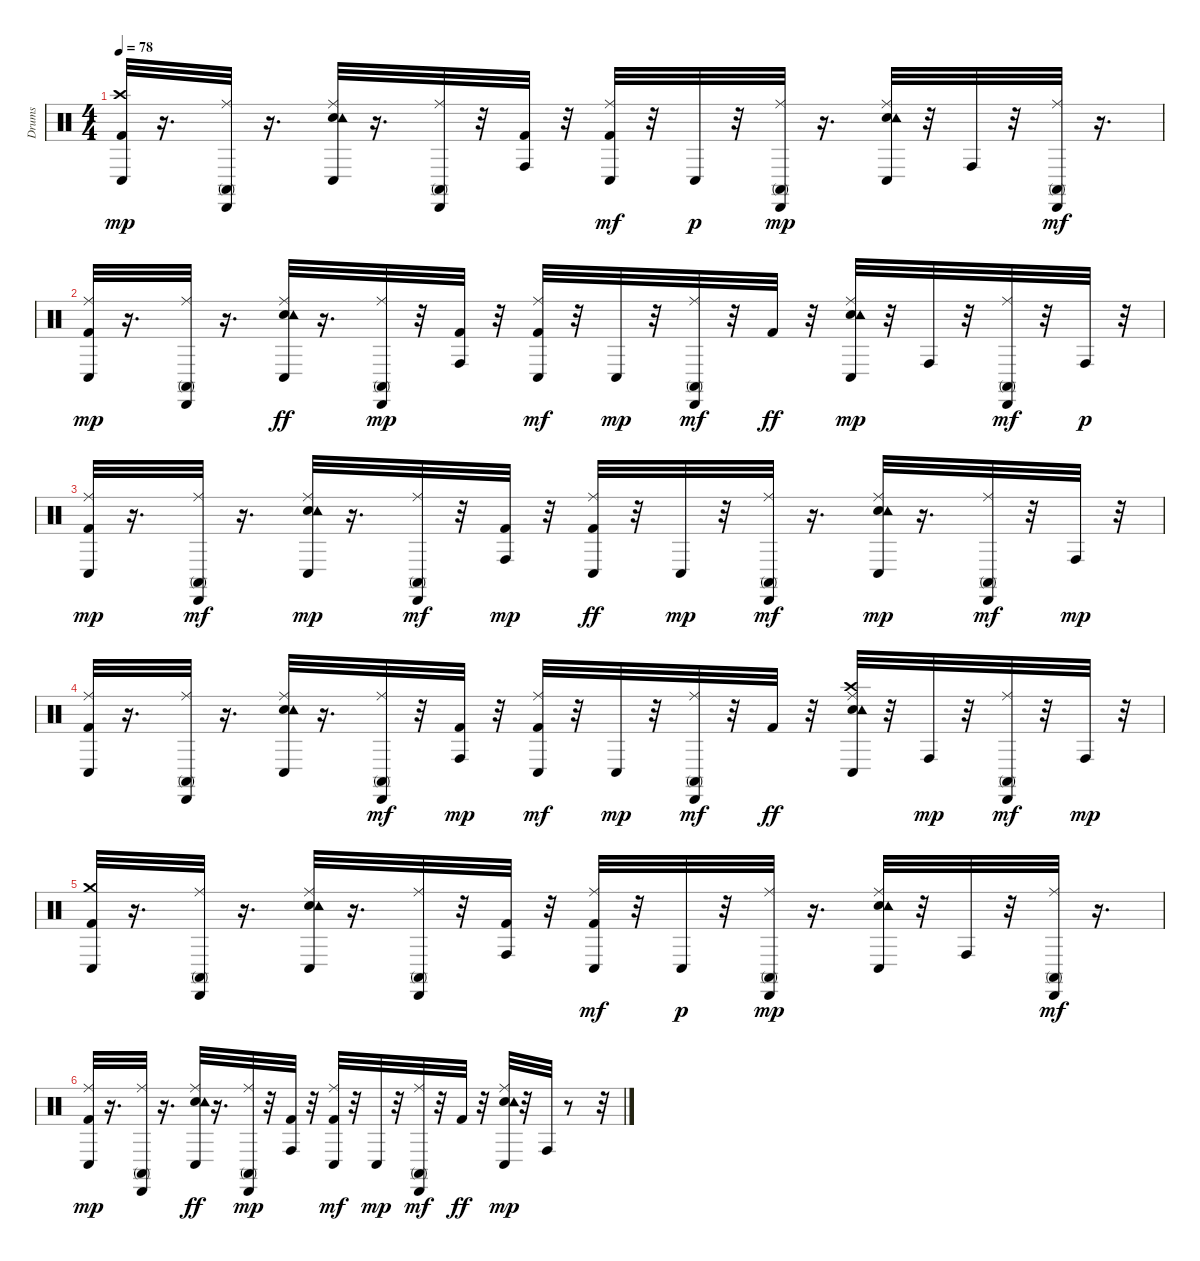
\track ("Drums   " "Drums   ") {instrument percussion}
\staff {score}
\articulation defaults
\ts (4 4)
\tempo 78
\clef neutral
\ks c
("Kick (hit) 2" "Crash high (hit)" "Conga low (hit)").32{dy mp} r.16{d} ("Ride (middle)" "Conga high (mute)" "Cabasa (hit)").32 r.16{d} ("Snare (hit) 2" "Ride (middle)" "Tambourine (hit)" "Conga low (hit)").32 r.16{d} ("Ride (middle)" "Conga high (mute)" "Cabasa (hit)").32 r.32 ("Kick (hit) 2" "Conga high (hit)").32 r.32 ("Conga low (hit)" "Kick (hit) 2" "Ride (middle)").32{dy mf} r.32 "Conga low (hit)".32{dy p} r.32 ("Ride (middle)" "Conga high (mute)" "Cabasa (hit)").32{dy mp} r.16{d} ("Snare (hit) 2" "Tambourine (hit)" "Ride (middle)" "Conga low (hit)").32{volume 14} r.32 "Conga high (hit)".32 r.32 ("Conga high (mute)" "Ride (middle)" "Cabasa (hit)").32{dy mf} r.16{d} |
("Kick (hit) 2" "Ride (middle)" "Conga low (hit)").32{dy mp volume 14} r.16{d} ("Ride (middle)" "Conga high (mute)" "Cabasa (hit)").32 r.16{d} ("Ride (middle)" "Conga low (hit)" "Snare (hit) 2" "Tambourine (hit)").32{dy ff volume 13} r.16{d} ("Conga high (mute)" "Ride (middle)" "Cabasa (hit)").32{dy mp volume 13} r.32 ("Kick (hit) 2" "Conga high (hit)").32{volume 12} r.32 ("Kick (hit) 2" "Conga low (hit)" "Ride (middle)").32{dy mf} r.32 "Conga low (hit)".32{dy mp} r.32 ("Conga high (mute)" "Ride (middle)" "Cabasa (hit)").32{dy mf} r.32 "Kick (hit) 2".32{dy ff volume 11} r.32 ("Snare (hit) 2" "Tambourine (hit)" "Ride (middle)" "Conga low (hit)").32{dy mp} r.32 "Conga high (hit)".32 r.32 ("Cabasa (hit)" "Ride (middle)" "Conga high (mute)").32{dy mf volume 11} r.32 "Conga high (hit)".32{dy p} r.32 |
("Ride (middle)" "Kick (hit) 2" "Conga low (hit)").32{dy mp} r.16{d} ("Cabasa (hit)" "Ride (middle)" "Conga high (mute)").32{dy mf volume 10} r.16{d} ("Snare (hit) 2" "Tambourine (hit)" "Ride (middle)" "Conga low (hit)").32{dy mp volume 10} r.16{d} ("Cabasa (hit)" "Ride (middle)" "Conga high (mute)").32{dy mf} r.32 ("Kick (hit) 2" "Conga high (hit)").32{dy mp volume 9} r.32 ("Conga low (hit)" "Ride (middle)" "Kick (hit) 2").32{dy ff} r.32 "Conga low (hit)".32{dy mp volume 9} r.32 ("Ride (middle)" "Cabasa (hit)" "Conga high (mute)").32{dy mf} r.16{d} ("Snare (hit) 2" "Tambourine (hit)" "Ride (middle)" "Conga low (hit)").32{dy mp volume 8} r.16{d} ("Conga high (mute)" "Ride (middle)" "Cabasa (hit)").32{dy mf volume 8} r.32 "Conga high (hit)".32{dy mp} r.32 |
("Ride (middle)" "Kick (hit) 2" "Conga low (hit)").32{volume 7} r.16{d} ("Ride (middle)" "Conga high (mute)" "Cabasa (hit)").32 r.16{d} ("Snare (hit) 2" "Tambourine (hit)" "Ride (middle)" "Conga low (hit)").32{volume 7} r.16{d} ("Ride (middle)" "Conga high (mute)" "Cabasa (hit)").32{dy mf} r.32 ("Kick (hit) 2" "Conga high (hit)").32{dy mp} r.32 ("Conga low (hit)" "Kick (hit) 2" "Ride (middle)").32{dy mf} r.32 "Conga low (hit)".32{dy mp volume 6} r.32 ("Cabasa (hit)" "Conga high (mute)" "Ride (middle)").32{dy mf} r.32 "Kick (hit) 2".32{dy ff} r.32 ("Crash high (hit)" "Ride (middle)" "Conga low (hit)" "Snare (hit) 2" "Tambourine (hit)").32 r.32 "Conga high (hit)".32{dy mp volume 6} r.32 ("Conga high (mute)" "Cabasa (hit)" "Ride (middle)").32{dy mf} r.32 "Conga high (hit)".32{dy mp} r.32 |
("Kick (hit) 2" "Crash medium (hit)" "Conga low (hit)").32 r.16{d} ("Ride (middle)" "Conga high (mute)" "Cabasa (hit)").32{volume 5} r.16{d} ("Snare (hit) 2" "Ride (middle)" "Tambourine (hit)" "Conga low (hit)").32 r.16{d} ("Ride (middle)" "Conga high (mute)" "Cabasa (hit)").32 r.32 ("Kick (hit) 2" "Conga high (hit)").32{volume 5} r.32 ("Conga low (hit)" "Kick (hit) 2" "Ride (middle)").32{dy mf} r.32 "Conga low (hit)".32{dy p} r.32 ("Ride (middle)" "Conga high (mute)" "Cabasa (hit)").32{dy mp} r.16{d} ("Snare (hit) 2" "Tambourine (hit)" "Ride (middle)" "Conga low (hit)").32{volume 4} r.32 "Conga high (hit)".32 r.32 ("Conga high (mute)" "Ride (middle)" "Cabasa (hit)").32{dy mf volume 4} r.16{d} |
("Kick (hit) 2" "Ride (middle)" "Conga low (hit)").32{dy mp} r.16{d} ("Ride (middle)" "Conga high (mute)" "Cabasa (hit)").32{volume 3} r.16{d} ("Ride (middle)" "Conga low (hit)" "Snare (hit) 2" "Tambourine (hit)").32{dy ff} r.16{d} ("Conga high (mute)" "Ride (middle)" "Cabasa (hit)").32{dy mp volume 3} r.32 ("Kick (hit) 2" "Conga high (hit)").32{volume 2} r.32 ("Kick (hit) 2" "Conga low (hit)" "Ride (middle)").32{dy mf} r.32 "Conga low (hit)".32{dy mp} r.32 ("Conga high (mute)" "Ride (middle)" "Cabasa (hit)").32{dy mf volume 2} r.32 "Kick (hit) 2".32{dy ff} r.32 ("Snare (hit) 2" "Tambourine (hit)" "Ride (middle)" "Conga low (hit)").32{dy mp volume 2} r.32 "Conga high (hit)".32{volume 1} r.8 r.32
